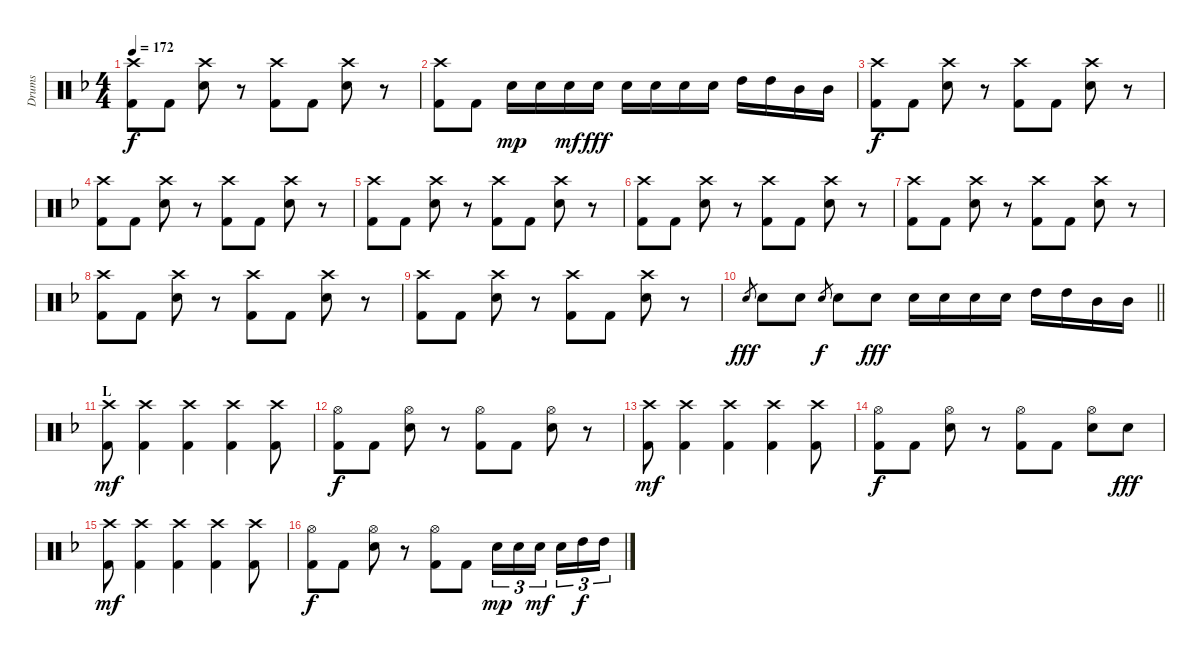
\track ("Drums" "Drums") {instrument percussion}
\staff {score}
\articulation defaults
\ts (4 4)
\tempo 172
\clef neutral
\ks f
("Crash high (hit)" "Kick (hit) 2").8{dy f} "Kick (hit) 2".8 ("Crash high (hit)" "Electric Snare (hit)").8 r.8 ("Crash high (hit)" "Kick (hit) 2").8 "Kick (hit) 2".8 ("Crash high (hit)" "Electric Snare (hit)").8 r.8 |
("Crash high (hit)" "Kick (hit) 2").8 "Kick (hit) 2".8 "Electric Snare (hit)".16{dy mp} "Electric Snare (hit)".16 "Electric Snare (hit)".16{dy mf} "Electric Snare (hit)".16{dy fff} "Electric Snare (hit)".16 "Electric Snare (hit)".16 "Electric Snare (hit)".16 "Electric Snare (hit)".16 "High Tom (hit)".16 "High Tom (hit)".16 "Mid Tom (hit)".16 "Mid Tom (hit)".16 |
("Crash high (hit)" "Kick (hit) 2").8{dy f} "Kick (hit) 2".8 ("Crash high (hit)" "Electric Snare (hit)").8 r.8 ("Crash high (hit)" "Kick (hit) 2").8 "Kick (hit) 2".8 ("Crash high (hit)" "Electric Snare (hit)").8 r.8 |
("Crash high (hit)" "Kick (hit) 2").8 "Kick (hit) 2".8 ("Crash high (hit)" "Electric Snare (hit)").8 r.8 ("Crash high (hit)" "Kick (hit) 2").8 "Kick (hit) 2".8 ("Crash high (hit)" "Electric Snare (hit)").8 r.8 |
("Crash high (hit)" "Kick (hit) 2").8 "Kick (hit) 2".8 ("Crash high (hit)" "Electric Snare (hit)").8 r.8 ("Crash high (hit)" "Kick (hit) 2").8 "Kick (hit) 2".8 ("Crash high (hit)" "Electric Snare (hit)").8 r.8 |
("Crash high (hit)" "Kick (hit) 2").8 "Kick (hit) 2".8 ("Crash high (hit)" "Electric Snare (hit)").8 r.8 ("Crash high (hit)" "Kick (hit) 2").8 "Kick (hit) 2".8 ("Crash high (hit)" "Electric Snare (hit)").8 r.8 |
("Crash high (hit)" "Kick (hit) 2").8 "Kick (hit) 2".8 ("Crash high (hit)" "Electric Snare (hit)").8 r.8 ("Crash high (hit)" "Kick (hit) 2").8 "Kick (hit) 2".8 ("Crash high (hit)" "Electric Snare (hit)").8 r.8 |
("Crash high (hit)" "Kick (hit) 2").8 "Kick (hit) 2".8 ("Crash high (hit)" "Electric Snare (hit)").8 r.8 ("Crash high (hit)" "Kick (hit) 2").8 "Kick (hit) 2".8 ("Crash high (hit)" "Electric Snare (hit)").8 r.8 |
("Crash high (hit)" "Kick (hit) 2").8 "Kick (hit) 2".8 ("Crash high (hit)" "Electric Snare (hit)").8 r.8 ("Crash high (hit)" "Kick (hit) 2").8 "Kick (hit) 2".8 ("Crash high (hit)" "Electric Snare (hit)").8 r.8 |
\barLineRight lightlight "Electric Snare (hit)".8{gr dy fff} "Electric Snare (hit)".8 "Electric Snare (hit)".8 "Electric Snare (hit)".8{gr dy f} "Electric Snare (hit)".8 "Electric Snare (hit)".8{dy fff} "Electric Snare (hit)".16 "Electric Snare (hit)".16 "Electric Snare (hit)".16 "Electric Snare (hit)".16 "High Tom (hit)".16 "High Tom (hit)".16 "Mid Tom (hit)".16 "Mid Tom (hit)".16
|
\section ("" "L")
("Crash high (hit)" "Kick (hit) 2").8{dy mf} ("Crash high (hit)" "Kick (hit) 2").4 ("Crash high (hit)" "Kick (hit) 2").4 ("Crash high (hit)" "Kick (hit) 2").4 ("Crash high (hit)" "Kick (hit) 2").8 |
("Hi-Hat (open)" "Kick (hit) 2").8{dy f} "Kick (hit) 2".8 ("Hi-Hat (open)" "Electric Snare (hit)").8 r.8 ("Hi-Hat (open)" "Kick (hit) 2").8 "Kick (hit) 2".8 ("Hi-Hat (open)" "Electric Snare (hit)").8 r.8 |
("Crash high (hit)" "Kick (hit) 2").8{dy mf} ("Crash high (hit)" "Kick (hit) 2").4 ("Crash high (hit)" "Kick (hit) 2").4 ("Crash high (hit)" "Kick (hit) 2").4 ("Crash high (hit)" "Kick (hit) 2").8 |
("Hi-Hat (open)" "Kick (hit) 2").8{dy f} "Kick (hit) 2".8 ("Hi-Hat (open)" "Electric Snare (hit)").8 r.8 ("Hi-Hat (open)" "Kick (hit) 2").8 "Kick (hit) 2".8 ("Hi-Hat (open)" "Electric Snare (hit)").8 "Electric Snare (hit)".8{dy fff} |
("Crash high (hit)" "Kick (hit) 2").8{dy mf} ("Crash high (hit)" "Kick (hit) 2").4 ("Crash high (hit)" "Kick (hit) 2").4 ("Crash high (hit)" "Kick (hit) 2").4 ("Crash high (hit)" "Kick (hit) 2").8 |
("Hi-Hat (open)" "Kick (hit) 2").8{dy f} "Kick (hit) 2".8 ("Hi-Hat (open)" "Electric Snare (hit)").8 r.8 ("Hi-Hat (open)" "Kick (hit) 2").8 "Kick (hit) 2".8 "Electric Snare (hit)".16{tu (3 2) dy mp} "Electric Snare (hit)".16{tu (3 2)} "Electric Snare (hit)".16{tu (3 2) dy mf} "Electric Snare (hit)".16{tu (3 2)} "High Tom (hit)".16{tu (3 2) dy f} "High Tom (hit)".16{tu (3 2)}
